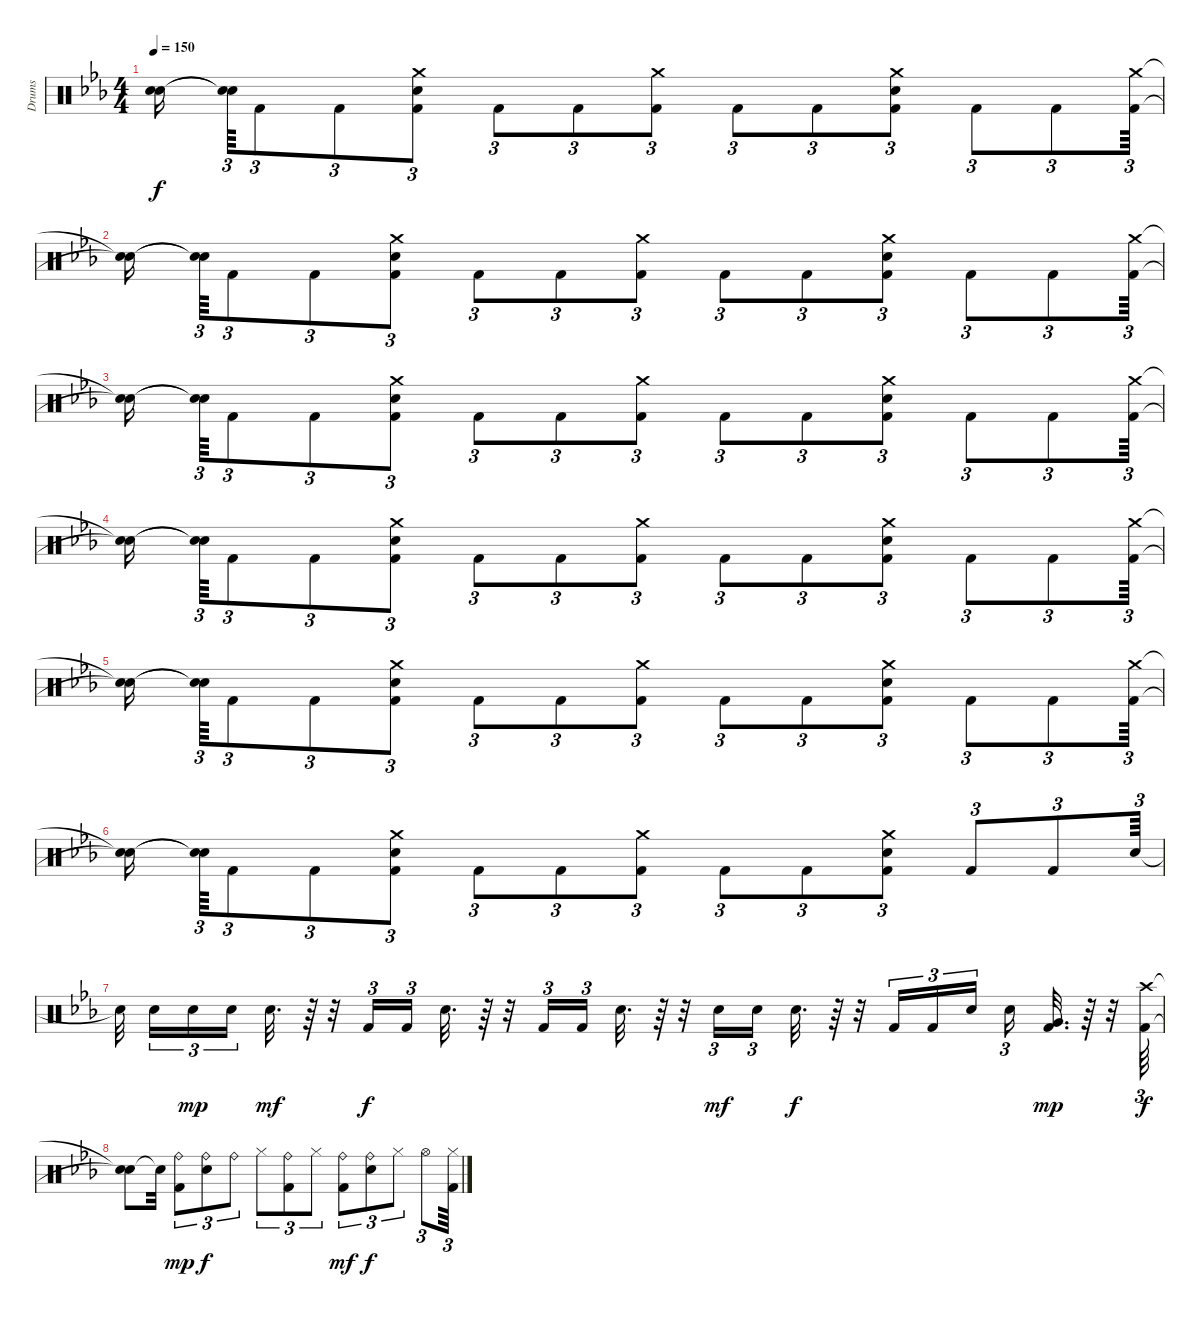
\track ("Drums" "Drums") {instrument percussion}
\staff {score}
\articulation defaults
\ts (4 4)
\tempo 150
\clef neutral
\ks cminor
("Snare (hit)"{t} "Snare (hit)"{t}).16{dy f beam splitsecondary} ("Snare (hit)"{t} "Snare (hit)"{t}).64{tu (3 2)} "Kick (hit) 2".8{tu (3 2)} "Kick (hit) 2".8{tu (3 2)} ("Electric Snare (hit)" "Kick (hit) 2" "Crash medium (hit)").8{tu (3 2)} "Kick (hit) 2".8{tu (3 2)} "Kick (hit) 2".8{tu (3 2)} ("Kick (hit) 2" "Crash medium (hit)").8{tu (3 2)} "Kick (hit) 2".8{tu (3 2)} "Kick (hit) 2".8{tu (3 2)} ("Kick (hit) 2" "Crash medium (hit)" "Electric Snare (hit)").8{tu (3 2)} "Kick (hit) 2".8{tu (3 2)} "Kick (hit) 2".8{tu (3 2)} ("Crash medium (hit)" "Kick (hit) 2").64{tu (3 2)} |
("Snare (hit)"{t} "Snare (hit)"{t}).16{beam splitsecondary} ("Snare (hit)"{t} "Snare (hit)"{t}).64{tu (3 2)} "Kick (hit) 2".8{tu (3 2)} "Kick (hit) 2".8{tu (3 2)} ("Electric Snare (hit)" "Kick (hit) 2" "Crash medium (hit)").8{tu (3 2)} "Kick (hit) 2".8{tu (3 2)} "Kick (hit) 2".8{tu (3 2)} ("Kick (hit) 2" "Crash medium (hit)").8{tu (3 2)} "Kick (hit) 2".8{tu (3 2)} "Kick (hit) 2".8{tu (3 2)} ("Kick (hit) 2" "Crash medium (hit)" "Electric Snare (hit)").8{tu (3 2)} "Kick (hit) 2".8{tu (3 2)} "Kick (hit) 2".8{tu (3 2)} ("Crash medium (hit)" "Kick (hit) 2").64{tu (3 2)} |
("Snare (hit)"{t} "Snare (hit)"{t}).16{beam splitsecondary} ("Snare (hit)"{t} "Snare (hit)"{t}).64{tu (3 2)} "Kick (hit) 2".8{tu (3 2)} "Kick (hit) 2".8{tu (3 2)} ("Electric Snare (hit)" "Kick (hit) 2" "Crash medium (hit)").8{tu (3 2)} "Kick (hit) 2".8{tu (3 2)} "Kick (hit) 2".8{tu (3 2)} ("Kick (hit) 2" "Crash medium (hit)").8{tu (3 2)} "Kick (hit) 2".8{tu (3 2)} "Kick (hit) 2".8{tu (3 2)} ("Kick (hit) 2" "Crash medium (hit)" "Electric Snare (hit)").8{tu (3 2)} "Kick (hit) 2".8{tu (3 2)} "Kick (hit) 2".8{tu (3 2)} ("Crash medium (hit)" "Kick (hit) 2").64{tu (3 2)} |
("Snare (hit)"{t} "Snare (hit)"{t}).16{beam splitsecondary} ("Snare (hit)"{t} "Snare (hit)"{t}).64{tu (3 2)} "Kick (hit) 2".8{tu (3 2)} "Kick (hit) 2".8{tu (3 2)} ("Electric Snare (hit)" "Kick (hit) 2" "Crash medium (hit)").8{tu (3 2)} "Kick (hit) 2".8{tu (3 2)} "Kick (hit) 2".8{tu (3 2)} ("Kick (hit) 2" "Crash medium (hit)").8{tu (3 2)} "Kick (hit) 2".8{tu (3 2)} "Kick (hit) 2".8{tu (3 2)} ("Kick (hit) 2" "Crash medium (hit)" "Electric Snare (hit)").8{tu (3 2)} "Kick (hit) 2".8{tu (3 2)} "Kick (hit) 2".8{tu (3 2)} ("Crash medium (hit)" "Kick (hit) 2").64{tu (3 2)} |
("Snare (hit)"{t} "Snare (hit)"{t}).16{beam splitsecondary} ("Snare (hit)"{t} "Snare (hit)"{t}).64{tu (3 2)} "Kick (hit) 2".8{tu (3 2)} "Kick (hit) 2".8{tu (3 2)} ("Electric Snare (hit)" "Kick (hit) 2" "Crash medium (hit)").8{tu (3 2)} "Kick (hit) 2".8{tu (3 2)} "Kick (hit) 2".8{tu (3 2)} ("Kick (hit) 2" "Crash medium (hit)").8{tu (3 2)} "Kick (hit) 2".8{tu (3 2)} "Kick (hit) 2".8{tu (3 2)} ("Kick (hit) 2" "Crash medium (hit)" "Electric Snare (hit)").8{tu (3 2)} "Kick (hit) 2".8{tu (3 2)} "Kick (hit) 2".8{tu (3 2)} ("Crash medium (hit)" "Kick (hit) 2").64{tu (3 2)} |
("Snare (hit)"{t} "Snare (hit)"{t}).16{beam splitsecondary} ("Snare (hit)"{t} "Snare (hit)"{t}).64{tu (3 2)} "Kick (hit) 2".8{tu (3 2)} "Kick (hit) 2".8{tu (3 2)} ("Electric Snare (hit)" "Kick (hit) 2" "Crash medium (hit)").8{tu (3 2)} "Kick (hit) 2".8{tu (3 2)} "Kick (hit) 2".8{tu (3 2)} ("Kick (hit) 2" "Crash medium (hit)").8{tu (3 2)} "Kick (hit) 2".8{tu (3 2)} "Kick (hit) 2".8{tu (3 2)} ("Kick (hit) 2" "Crash medium (hit)" "Electric Snare (hit)").8{tu (3 2)} "Kick (hit) 2".8{tu (3 2)} "Kick (hit) 2".8{tu (3 2)} "Electric Snare (hit)".64{tu (3 2)} |
"Snare (hit)"{t}.32{beam splitsecondary} "Electric Snare (hit)".16{tu (3 2)} "Electric Snare (hit)".16{tu (3 2) dy mp} "Electric Snare (hit)".16{tu (3 2) beam splitsecondary} "Electric Snare (hit)".32{d dy mf} r.64 r.32 "Kick (hit) 2".16{tu (3 2) dy f} "Kick (hit) 2".16{tu (3 2) beam splitsecondary} "Electric Snare (hit)".32{d} r.64 r.32 "Kick (hit) 2".16{tu (3 2)} "Kick (hit) 2".16{tu (3 2)} "Electric Snare (hit)".32{d} r.64 r.32 "Electric Snare (hit)".16{tu (3 2) dy mf} "Electric Snare (hit)".16{tu (3 2) beam splitsecondary} "Electric Snare (hit)".32{d dy f} r.64 r.32 "Kick (hit) 2".16{tu (3 2)} "Kick (hit) 2".16{tu (3 2)} "Electric Snare (hit)".16{tu (3 2) beam splitsecondary} "Electric Snare (hit)".16{tu (3 2)} ("Kick (hit) 2" "Very Low Tom (hit)").32{d dy mp} r.64 r.32 ("Kick (hit) 2" "Crash high (hit)").64{tu (3 2) dy f} |
("Snare (hit)"{t} "Snare (hit)"{t}).8 "Snare (hit)"{t}.32 ("Kick (hit) 2" "Ride (bell)").8{tu (3 2) dy mp} ("Electric Snare (hit)" "Ride (bell)").8{tu (3 2) dy f} "Ride (bell)".8{tu (3 2)} "Hi-Hat (closed)".8{tu (3 2)} ("Kick (hit) 2" "Ride (bell)").8{tu (3 2)} "Hi-Hat (closed)".8{tu (3 2)} ("Kick (hit) 2" "Ride (bell)").8{tu (3 2) dy mf} ("Electric Snare (hit)" "Ride (bell)").8{tu (3 2) dy f} "Hi-Hat (closed)".8{tu (3 2)} "Hi-Hat (open)".8{tu (3 2)} ("Kick (hit) 2" "Hi-Hat (closed)").64{tu (3 2)}
